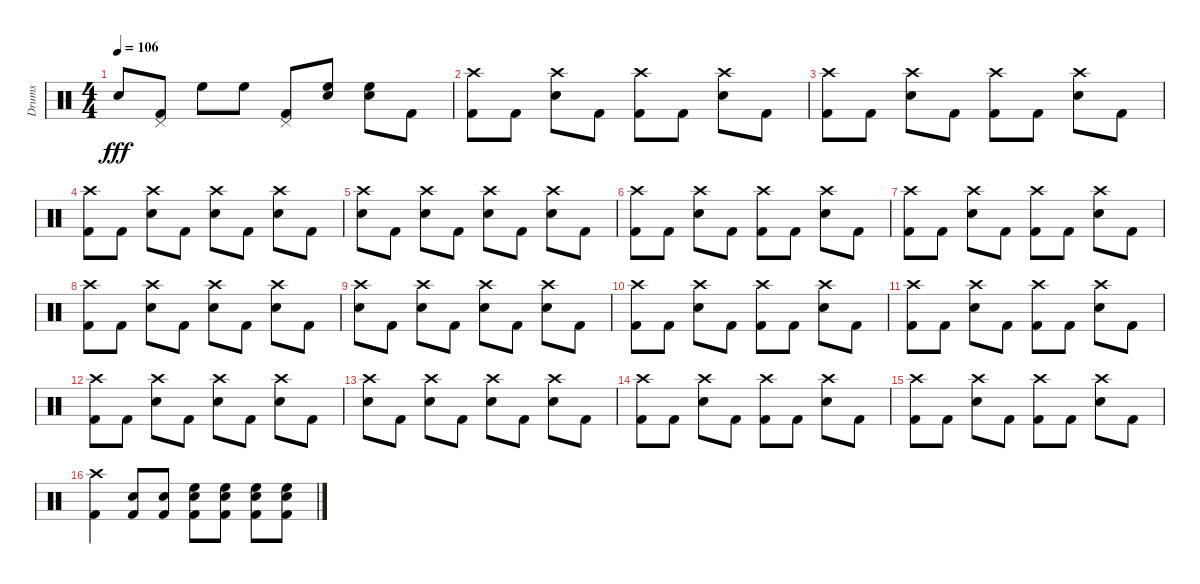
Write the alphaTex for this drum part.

\track ("Drums" "Drums") {instrument percussion}
\staff {score}
\articulation defaults
\ts (4 4)
\tempo 106
\clef neutral
\ks c "Snare (hit) 2".8{dy fff}
("Pedal Hi-Hat (hit)" "Kick (hit) 2").8 "High Floor Tom (hit)".8 "High Floor Tom (hit)".8 ("Pedal Hi-Hat (hit)" "Kick (hit) 2").8 ("High Floor Tom (hit)" "Snare (hit) 2").8 ("High Floor Tom (hit)" "Snare (hit) 2").8 "Kick (hit) 2".8 |
("Crash high (hit)" "Kick (hit) 2").8 "Kick (hit) 2".8 ("Crash high (hit)" "Snare (hit) 2").8 "Kick (hit) 2".8 ("Crash high (hit)" "Kick (hit) 2").8 "Kick (hit) 2".8 ("Crash high (hit)" "Snare (hit) 2").8 "Kick (hit) 2".8 |
("Crash high (hit)" "Kick (hit) 2").8 "Kick (hit) 2".8 ("Crash high (hit)" "Snare (hit) 2").8 "Kick (hit) 2".8 ("Crash high (hit)" "Kick (hit) 2").8 "Kick (hit) 2".8 ("Crash high (hit)" "Snare (hit) 2").8 "Kick (hit) 2".8 |
("Crash high (hit)" "Kick (hit) 2").8 "Kick (hit) 2".8 ("Crash high (hit)" "Snare (hit) 2").8 "Kick (hit) 2".8 ("Crash high (hit)" "Snare (hit) 2").8 "Kick (hit) 2".8 ("Crash high (hit)" "Snare (hit) 2").8 "Kick (hit) 2".8 |
("Crash high (hit)" "Snare (hit) 2").8 "Kick (hit) 2".8 ("Crash high (hit)" "Snare (hit) 2").8 "Kick (hit) 2".8 ("Crash high (hit)" "Snare (hit) 2").8 "Kick (hit) 2".8 ("Crash high (hit)" "Snare (hit) 2").8 "Kick (hit) 2".8 |
("Crash high (hit)" "Kick (hit) 2").8 "Kick (hit) 2".8 ("Crash high (hit)" "Snare (hit) 2").8 "Kick (hit) 2".8 ("Crash high (hit)" "Kick (hit) 2").8 "Kick (hit) 2".8 ("Crash high (hit)" "Snare (hit) 2").8 "Kick (hit) 2".8 |
("Crash high (hit)" "Kick (hit) 2").8 "Kick (hit) 2".8 ("Crash high (hit)" "Snare (hit) 2").8 "Kick (hit) 2".8 ("Crash high (hit)" "Kick (hit) 2").8 "Kick (hit) 2".8 ("Crash high (hit)" "Snare (hit) 2").8 "Kick (hit) 2".8 |
("Crash high (hit)" "Kick (hit) 2").8 "Kick (hit) 2".8 ("Crash high (hit)" "Snare (hit) 2").8 "Kick (hit) 2".8 ("Crash high (hit)" "Snare (hit) 2").8 "Kick (hit) 2".8 ("Crash high (hit)" "Snare (hit) 2").8 "Kick (hit) 2".8 |
("Crash high (hit)" "Snare (hit) 2").8 "Kick (hit) 2".8 ("Crash high (hit)" "Snare (hit) 2").8 "Kick (hit) 2".8 ("Crash high (hit)" "Snare (hit) 2").8 "Kick (hit) 2".8 ("Crash high (hit)" "Snare (hit) 2").8 "Kick (hit) 2".8 |
("Crash high (hit)" "Kick (hit) 2").8 "Kick (hit) 2".8 ("Crash high (hit)" "Snare (hit) 2").8 "Kick (hit) 2".8 ("Crash high (hit)" "Kick (hit) 2").8 "Kick (hit) 2".8 ("Crash high (hit)" "Snare (hit) 2").8 "Kick (hit) 2".8 |
("Crash high (hit)" "Kick (hit) 2").8 "Kick (hit) 2".8 ("Crash high (hit)" "Snare (hit) 2").8 "Kick (hit) 2".8 ("Crash high (hit)" "Kick (hit) 2").8 "Kick (hit) 2".8 ("Crash high (hit)" "Snare (hit) 2").8 "Kick (hit) 2".8 |
("Crash high (hit)" "Kick (hit) 2").8 "Kick (hit) 2".8 ("Crash high (hit)" "Snare (hit) 2").8 "Kick (hit) 2".8 ("Crash high (hit)" "Snare (hit) 2").8 "Kick (hit) 2".8 ("Crash high (hit)" "Snare (hit) 2").8 "Kick (hit) 2".8 |
("Crash high (hit)" "Snare (hit) 2").8 "Kick (hit) 2".8 ("Crash high (hit)" "Snare (hit) 2").8 "Kick (hit) 2".8 ("Crash high (hit)" "Snare (hit) 2").8 "Kick (hit) 2".8 ("Crash high (hit)" "Snare (hit) 2").8 "Kick (hit) 2".8 |
("Crash high (hit)" "Kick (hit) 2").8 "Kick (hit) 2".8 ("Crash high (hit)" "Snare (hit) 2").8 "Kick (hit) 2".8 ("Crash high (hit)" "Kick (hit) 2").8 "Kick (hit) 2".8 ("Crash high (hit)" "Snare (hit) 2").8 "Kick (hit) 2".8 |
("Crash high (hit)" "Kick (hit) 2").8 "Kick (hit) 2".8 ("Crash high (hit)" "Snare (hit) 2").8 "Kick (hit) 2".8 ("Crash high (hit)" "Kick (hit) 2").8 "Kick (hit) 2".8 ("Crash high (hit)" "Snare (hit) 2").8 "Kick (hit) 2".8 |
("Crash high (hit)" "Kick (hit) 2").4 ("Snare (hit) 2" "Kick (hit) 2").8 ("Snare (hit) 2" "Kick (hit) 2").8 ("High Floor Tom (hit)" "Snare (hit) 2" "Kick (hit) 2").8 ("High Floor Tom (hit)" "Snare (hit) 2" "Kick (hit) 2").8 ("High Floor Tom (hit)" "Snare (hit) 2" "Kick (hit) 2").8 ("High Floor Tom (hit)" "Snare (hit) 2" "Kick (hit) 2").8
